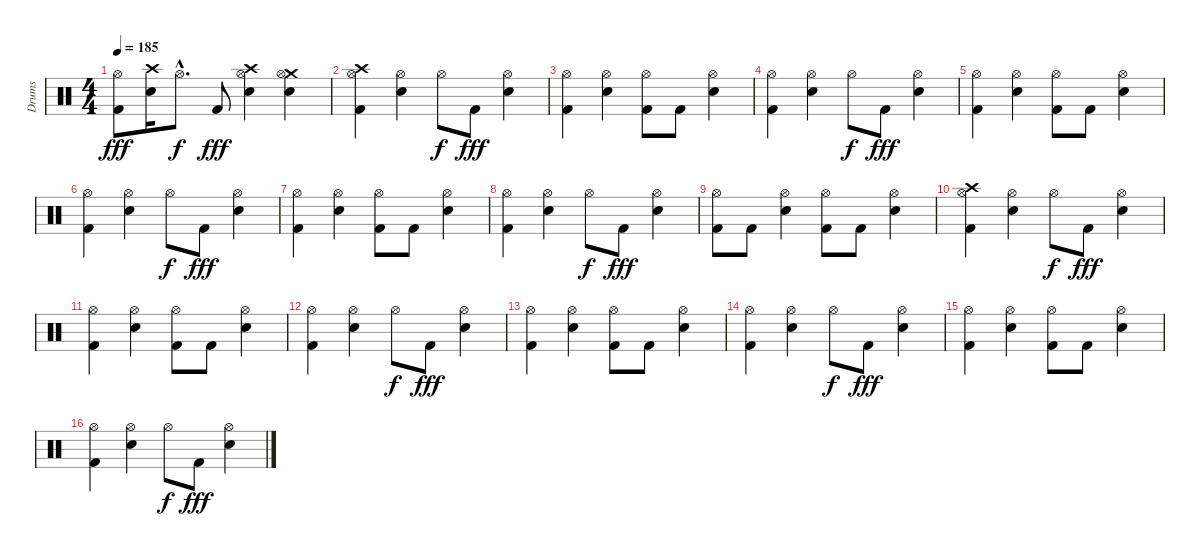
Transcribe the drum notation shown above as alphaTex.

\track ("Drums" "Drums") {instrument percussion}
\staff {score}
\articulation defaults
\ts (4 4)
\tempo 185
\clef neutral
\ks c
("Kick (hit) 2" "Hi-Hat (open)").8{dy fff} ("Crash high (hit)" "Snare (hit) 2").16 "Hi-Hat (open)"{hac}.8{d dy f} "Kick (hit) 2".8{dy fff} ("Crash high (hit)" "Snare (hit) 2" "Hi-Hat (open)").4 ("Snare (hit) 2" "Crash medium (hit)" "Hi-Hat (open)").4 |
("Kick (hit) 2" "Crash high (hit)" "Hi-Hat (open)").4 ("Snare (hit) 2" "Hi-Hat (open)").4 "Hi-Hat (open)".8{dy f} "Kick (hit) 2".8{dy fff} ("Snare (hit) 2" "Hi-Hat (open)").4 |
("Kick (hit) 2" "Hi-Hat (open)").4 ("Snare (hit) 2" "Hi-Hat (open)").4 ("Kick (hit) 2" "Hi-Hat (open)").8 "Kick (hit) 2".8 ("Snare (hit) 2" "Hi-Hat (open)").4 |
("Kick (hit) 2" "Hi-Hat (open)").4 ("Snare (hit) 2" "Hi-Hat (open)").4 "Hi-Hat (open)".8{dy f} "Kick (hit) 2".8{dy fff} ("Snare (hit) 2" "Hi-Hat (open)").4 |
("Kick (hit) 2" "Hi-Hat (open)").4 ("Snare (hit) 2" "Hi-Hat (open)").4 ("Kick (hit) 2" "Hi-Hat (open)").8 "Kick (hit) 2".8 ("Snare (hit) 2" "Hi-Hat (open)").4 |
("Kick (hit) 2" "Hi-Hat (open)").4 ("Snare (hit) 2" "Hi-Hat (open)").4 "Hi-Hat (open)".8{dy f} "Kick (hit) 2".8{dy fff} ("Snare (hit) 2" "Hi-Hat (open)").4 |
("Kick (hit) 2" "Hi-Hat (open)").4 ("Snare (hit) 2" "Hi-Hat (open)").4 ("Kick (hit) 2" "Hi-Hat (open)").8 "Kick (hit) 2".8 ("Snare (hit) 2" "Hi-Hat (open)").4 |
("Kick (hit) 2" "Hi-Hat (open)").4 ("Snare (hit) 2" "Hi-Hat (open)").4 "Hi-Hat (open)".8{dy f} "Kick (hit) 2".8{dy fff} ("Snare (hit) 2" "Hi-Hat (open)").4 |
("Kick (hit) 2" "Hi-Hat (open)").8 "Kick (hit) 2".8 ("Snare (hit) 2" "Hi-Hat (open)").4 ("Kick (hit) 2" "Hi-Hat (open)").8 "Kick (hit) 2".8 ("Snare (hit) 2" "Hi-Hat (open)").4 |
("Kick (hit) 2" "Crash high (hit)" "Hi-Hat (open)").4 ("Snare (hit) 2" "Hi-Hat (open)").4 "Hi-Hat (open)".8{dy f} "Kick (hit) 2".8{dy fff} ("Snare (hit) 2" "Hi-Hat (open)").4 |
("Kick (hit) 2" "Hi-Hat (open)").4 ("Snare (hit) 2" "Hi-Hat (open)").4 ("Kick (hit) 2" "Hi-Hat (open)").8 "Kick (hit) 2".8 ("Snare (hit) 2" "Hi-Hat (open)").4 |
("Kick (hit) 2" "Hi-Hat (open)").4 ("Snare (hit) 2" "Hi-Hat (open)").4 "Hi-Hat (open)".8{dy f} "Kick (hit) 2".8{dy fff} ("Snare (hit) 2" "Hi-Hat (open)").4 |
("Kick (hit) 2" "Hi-Hat (open)").4 ("Snare (hit) 2" "Hi-Hat (open)").4 ("Kick (hit) 2" "Hi-Hat (open)").8 "Kick (hit) 2".8 ("Snare (hit) 2" "Hi-Hat (open)").4 |
("Kick (hit) 2" "Hi-Hat (open)").4 ("Snare (hit) 2" "Hi-Hat (open)").4 "Hi-Hat (open)".8{dy f} "Kick (hit) 2".8{dy fff} ("Snare (hit) 2" "Hi-Hat (open)").4 |
("Kick (hit) 2" "Hi-Hat (open)").4 ("Snare (hit) 2" "Hi-Hat (open)").4 ("Kick (hit) 2" "Hi-Hat (open)").8 "Kick (hit) 2".8 ("Snare (hit) 2" "Hi-Hat (open)").4 |
("Kick (hit) 2" "Hi-Hat (open)").4 ("Snare (hit) 2" "Hi-Hat (open)").4 "Hi-Hat (open)".8{dy f} "Kick (hit) 2".8{dy fff} ("Snare (hit) 2" "Hi-Hat (open)").4
